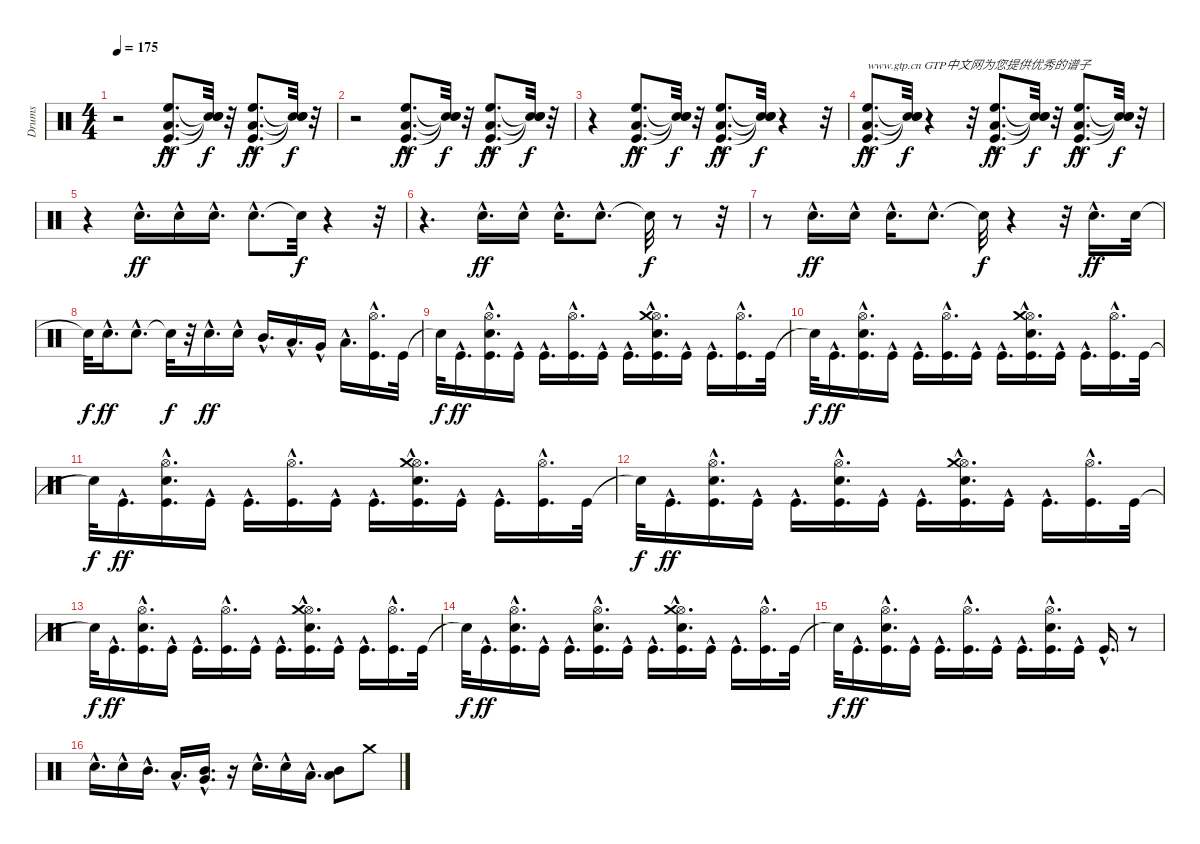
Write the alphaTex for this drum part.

\track ("Drums" "Drums") {instrument percussion}
\staff {score}
\articulation defaults
\ts (4 4)
\tempo 175
\clef neutral
\ks c
r.2{dy ff} ("Kick (hit)"{hac} "Low Tom (hit)"{hac} "High Floor Tom (hit)"{hac}).8{d} ("Snare (hit)"{t} "Snare (hit)"{t} "Snare (hit)"{t}).32{dy f} r.32 ("Kick (hit)"{hac} "Low Tom (hit)"{hac} "High Floor Tom (hit)"{hac}).8{d dy ff} ("Snare (hit)"{t} "Snare (hit)"{t} "Snare (hit)"{t}).32{dy f} r.32 |
r.2 ("Kick (hit)"{hac} "Low Tom (hit)"{hac} "High Floor Tom (hit)"{hac}).8{d dy ff} ("Snare (hit)"{t} "Snare (hit)"{t} "Snare (hit)"{t}).32{dy f} r.32 ("Kick (hit)"{hac} "Low Tom (hit)"{hac} "High Floor Tom (hit)"{hac}).8{d dy ff} ("Snare (hit)"{t} "Snare (hit)"{t} "Snare (hit)"{t}).32{dy f} r.32 |
r.4 ("Kick (hit)"{hac} "Low Tom (hit)"{hac} "High Floor Tom (hit)"{hac}).8{d dy ff} ("Snare (hit)"{t} "Snare (hit)"{t} "Snare (hit)"{t}).32{dy f} r.32 ("Kick (hit)"{hac} "Low Tom (hit)"{hac} "High Floor Tom (hit)"{hac}).8{d dy ff} ("Snare (hit)"{t} "Snare (hit)"{t} "Snare (hit)"{t}).32{dy f} r.4 r.32 |
("Kick (hit)"{hac} "Low Tom (hit)"{hac} "High Floor Tom (hit)"{hac}).8{d txt "www.gtp.cn GTP中文网为您提供优秀的谱子" dy ff} ("Snare (hit)"{t} "Snare (hit)"{t} "Snare (hit)"{t}).32{dy f} r.4 r.32 ("Kick (hit)"{hac} "Low Tom (hit)"{hac} "High Floor Tom (hit)"{hac}).8{d dy ff} ("Snare (hit)"{t} "Snare (hit)"{t} "Snare (hit)"{t}).32{dy f} r.32 ("Kick (hit)"{hac} "Low Tom (hit)"{hac} "High Floor Tom (hit)"{hac}).8{d dy ff} ("Snare (hit)"{t} "Snare (hit)"{t} "Snare (hit)"{t}).32{dy f} r.32 |
r.4 "Electric Snare (hit)"{hac}.16{d dy ff} "Electric Snare (hit)"{hac}.16 "Electric Snare (hit)"{hac}.16{d} "Electric Snare (hit)"{hac}.8{d} "Snare (hit)"{t}.32{dy f} r.4 r.32 |
r.4{d} "Electric Snare (hit)"{hac}.16{d dy ff} "Electric Snare (hit)"{hac}.16 "Electric Snare (hit)"{hac}.16{d} "Electric Snare (hit)"{hac}.8{d} "Snare (hit)"{t}.32{dy f} r.8 r.32 |
r.8 "Electric Snare (hit)"{hac}.16{d dy ff} "Electric Snare (hit)"{hac}.16 "Electric Snare (hit)"{hac}.16{d} "Electric Snare (hit)"{hac}.8{d} "Snare (hit)"{t}.32{dy f} r.4 r.32 "Electric Snare (hit)"{hac}.16{d dy ff} "Electric Snare (hit)".32 |
"Snare (hit)"{t}.32{dy f} "Electric Snare (hit)"{hac}.16{d dy ff} "Electric Snare (hit)"{hac}.8{d} "Snare (hit)"{t}.32{dy f} r.32 "Electric Snare (hit)"{hac}.16{d dy ff} "Electric Snare (hit)"{hac}.16 "Mid Tom (hit)"{hac}.16{d} "Low Tom (hit)"{hac}.16{d} "Very Low Tom (hit)"{hac}.16 "Low Floor Tom (hit)"{hac}.16{d} ("Kick (hit)"{hac} "Hi-Hat (open)"{hac}).16{d} "Kick (hit)".32 |
"Snare (hit)"{t}.32{dy f} "Kick (hit)"{hac}.16{d dy ff} ("Kick (hit)"{hac} "Electric Snare (hit)"{hac} "Hi-Hat (open)"{hac}).16{d} "Kick (hit)"{hac}.16 "Kick (hit)"{hac}.16{d} ("Kick (hit)"{hac} "Hi-Hat (open)"{hac}).16{d} "Kick (hit)"{hac}.16 "Kick (hit)"{hac}.16{d} ("Kick (hit)"{hac} "Electric Snare (hit)"{hac} "Hi-Hat (open)"{hac} "Crash medium (hit)"{hac}).16{d} "Kick (hit)"{hac}.16 "Kick (hit)"{hac}.16{d} ("Kick (hit)"{hac} "Hi-Hat (open)"{hac}).16{d} "Kick (hit)".32 |
"Snare (hit)"{t}.32{dy f} "Kick (hit)"{hac}.16{d dy ff} ("Kick (hit)"{hac} "Electric Snare (hit)"{hac} "Hi-Hat (open)"{hac}).16{d} "Kick (hit)"{hac}.16 "Kick (hit)"{hac}.16{d} ("Kick (hit)"{hac} "Hi-Hat (open)"{hac}).16{d} "Kick (hit)"{hac}.16 "Kick (hit)"{hac}.16{d} ("Kick (hit)"{hac} "Electric Snare (hit)"{hac} "Hi-Hat (open)"{hac} "Crash medium (hit)"{hac}).16{d} "Kick (hit)"{hac}.16 "Kick (hit)"{hac}.16{d} ("Kick (hit)"{hac} "Hi-Hat (open)"{hac}).16{d} "Kick (hit)".32 |
"Snare (hit)"{t}.32{dy f} "Kick (hit)"{hac}.16{d dy ff} ("Kick (hit)"{hac} "Electric Snare (hit)"{hac} "Hi-Hat (open)"{hac}).16{d} "Kick (hit)"{hac}.16 "Kick (hit)"{hac}.16{d} ("Kick (hit)"{hac} "Hi-Hat (open)"{hac}).16{d} "Kick (hit)"{hac}.16 "Kick (hit)"{hac}.16{d} ("Kick (hit)"{hac} "Electric Snare (hit)"{hac} "Hi-Hat (open)"{hac} "Crash medium (hit)"{hac}).16{d} "Kick (hit)"{hac}.16 "Kick (hit)"{hac}.16{d} ("Kick (hit)"{hac} "Hi-Hat (open)"{hac}).16{d} "Kick (hit)".32 |
"Snare (hit)"{t}.32{dy f} "Kick (hit)"{hac}.16{d dy ff} ("Kick (hit)"{hac} "Electric Snare (hit)"{hac} "Hi-Hat (open)"{hac}).16{d} "Kick (hit)"{hac}.16 "Kick (hit)"{hac}.16{d} ("Kick (hit)"{hac} "Electric Snare (hit)"{hac} "Hi-Hat (open)"{hac}).16{d} "Kick (hit)"{hac}.16 "Kick (hit)"{hac}.16{d} ("Kick (hit)"{hac} "Electric Snare (hit)"{hac} "Hi-Hat (open)"{hac} "Crash medium (hit)"{hac}).16{d} "Kick (hit)"{hac}.16 "Kick (hit)"{hac}.16{d} ("Kick (hit)"{hac} "Hi-Hat (open)"{hac}).16{d} "Kick (hit)".32 |
"Snare (hit)"{t}.32{dy f} "Kick (hit)"{hac}.16{d dy ff} ("Kick (hit)"{hac} "Electric Snare (hit)"{hac} "Hi-Hat (open)"{hac}).16{d} "Kick (hit)"{hac}.16 "Kick (hit)"{hac}.16{d} ("Kick (hit)"{hac} "Hi-Hat (open)"{hac}).16{d} "Kick (hit)"{hac}.16 "Kick (hit)"{hac}.16{d} ("Kick (hit)"{hac} "Electric Snare (hit)"{hac} "Hi-Hat (open)"{hac} "Crash medium (hit)"{hac}).16{d} "Kick (hit)"{hac}.16 "Kick (hit)"{hac}.16{d} ("Kick (hit)"{hac} "Hi-Hat (open)"{hac}).16{d} "Kick (hit)".32 |
"Snare (hit)"{t}.32{dy f} "Kick (hit)"{hac}.16{d dy ff} ("Kick (hit)"{hac} "Electric Snare (hit)"{hac} "Hi-Hat (open)"{hac}).16{d} "Kick (hit)"{hac}.16 "Kick (hit)"{hac}.16{d} ("Kick (hit)"{hac} "Electric Snare (hit)"{hac} "Hi-Hat (open)"{hac}).16{d} "Kick (hit)"{hac}.16 "Kick (hit)"{hac}.16{d} ("Kick (hit)"{hac} "Electric Snare (hit)"{hac} "Hi-Hat (open)"{hac} "Crash medium (hit)"{hac}).16{d} "Kick (hit)"{hac}.16 "Kick (hit)"{hac}.16{d} ("Kick (hit)"{hac} "Hi-Hat (open)"{hac}).16{d} "Kick (hit)".32 |
"Snare (hit)"{t}.32{dy f} "Kick (hit)"{hac}.16{d dy ff} ("Kick (hit)"{hac} "Electric Snare (hit)"{hac} "Hi-Hat (open)"{hac}).16{d} "Kick (hit)"{hac}.16 "Kick (hit)"{hac}.16{d} ("Kick (hit)"{hac} "Hi-Hat (open)"{hac}).16{d} "Kick (hit)"{hac}.16 "Kick (hit)"{hac}.16{d} ("Kick (hit)"{hac} "Electric Snare (hit)"{hac} "Hi-Hat (open)"{hac}).16{d} "Kick (hit)"{hac}.16 "Kick (hit)"{hac}.16{d} r.8 |
"Electric Snare (hit)"{hac}.16{d} "Electric Snare (hit)"{hac}.16 "Mid Tom (hit)"{hac}.16{d} "Low Tom (hit)"{hac}.16{d} ("Very Low Tom (hit)"{hac} "Mid Tom (hit)"{hac}).16{d} r.16 "Electric Snare (hit)"{hac}.16{d} "Electric Snare (hit)"{hac}.16 "Low Tom (hit)"{hac}.16{d} ("Low Floor Tom (hit)" "Mid Tom (hit)").8 "Crash medium (hit)".8
